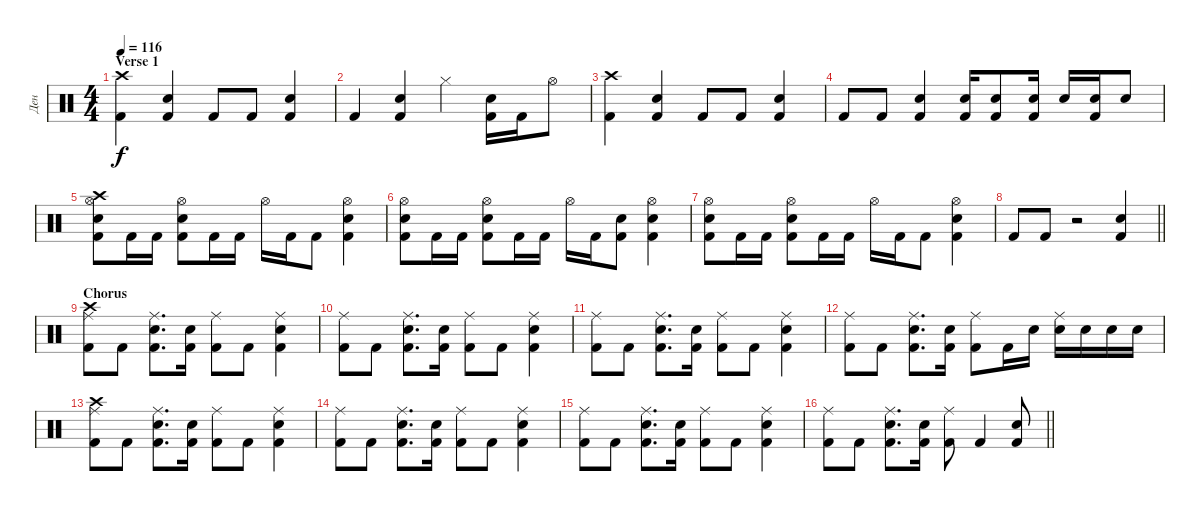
\track ("Ден" "Ден") {instrument percussion}
\staff {score}
\articulation defaults
\ts (4 4)
\section ("" "Verse 1")
\tempo 116
\clef neutral
\ks c
("Crash high (hit)" "Kick (hit) 2").4{dy f} ("Electric Snare (hit)" "Kick (hit) 2").4 "Kick (hit) 2".8 "Kick (hit) 2".8 ("Electric Snare (hit)" "Kick (hit) 2").4 |
"Kick (hit) 2".4 ("Electric Snare (hit)" "Kick (hit) 2").4 "Hi-Hat (closed)".4 ("Electric Snare (hit)" "Kick (hit) 2").16 "Kick (hit) 2".16 "Hi-Hat (open)".8 |
("Crash high (hit)" "Kick (hit) 2").4 ("Electric Snare (hit)" "Kick (hit) 2").4 "Kick (hit) 2".8 "Kick (hit) 2".8 ("Electric Snare (hit)" "Kick (hit) 2").4 |
"Kick (hit) 2".8 "Kick (hit) 2".8 ("Electric Snare (hit)" "Kick (hit) 2").4 ("Electric Snare (hit)" "Kick (hit) 2").16 ("Electric Snare (hit)" "Kick (hit) 2").8 ("Electric Snare (hit)" "Kick (hit) 2").16 "Electric Snare (hit)".16 ("Electric Snare (hit)" "Kick (hit) 2").16 "Electric Snare (hit)".8 |
("Crash high (hit)" "Hi-Hat (open)" "Electric Snare (hit)" "Kick (hit) 2").8 "Kick (hit) 2".16 "Kick (hit) 2".16 ("Hi-Hat (open)" "Electric Snare (hit)" "Kick (hit) 2").8 "Kick (hit) 2".16 "Kick (hit) 2".16 "Hi-Hat (open)".16 "Kick (hit) 2".16 "Kick (hit) 2".8 ("Hi-Hat (open)" "Electric Snare (hit)" "Kick (hit) 2").4 |
("Hi-Hat (open)" "Electric Snare (hit)" "Kick (hit) 2").8 "Kick (hit) 2".16 "Kick (hit) 2".16 ("Hi-Hat (open)" "Electric Snare (hit)" "Kick (hit) 2").8 "Kick (hit) 2".16 "Kick (hit) 2".16 "Hi-Hat (open)".16 "Kick (hit) 2".16 ("Electric Snare (hit)" "Kick (hit) 2").8 ("Hi-Hat (open)" "Electric Snare (hit)" "Kick (hit) 2").4 |
("Hi-Hat (open)" "Electric Snare (hit)" "Kick (hit) 2").8 "Kick (hit) 2".16 "Kick (hit) 2".16 ("Hi-Hat (open)" "Electric Snare (hit)" "Kick (hit) 2").8 "Kick (hit) 2".16 "Kick (hit) 2".16 "Hi-Hat (open)".16 "Kick (hit) 2".16 "Kick (hit) 2".8 ("Hi-Hat (open)" "Electric Snare (hit)" "Kick (hit) 2").4 |
\barLineRight lightlight "Kick (hit) 2".8 "Kick (hit) 2".8
r.2 ("Electric Snare (hit)" "Kick (hit) 2").4 |
\section ("" "Chorus")
("Crash high (hit)" "Ride (middle)" "Kick (hit) 2").8 "Kick (hit) 2".8 ("Ride (middle)" "Electric Snare (hit)" "Kick (hit) 2").8{d} ("Electric Snare (hit)" "Kick (hit) 2").16 ("Ride (middle)" "Kick (hit) 2").8 "Kick (hit) 2".8 ("Ride (middle)" "Electric Snare (hit)" "Kick (hit) 2").4 |
("Ride (middle)" "Kick (hit) 2").8 "Kick (hit) 2".8 ("Ride (middle)" "Electric Snare (hit)" "Kick (hit) 2").8{d} ("Electric Snare (hit)" "Kick (hit) 2").16 ("Ride (middle)" "Kick (hit) 2").8 "Kick (hit) 2".8 ("Ride (middle)" "Electric Snare (hit)" "Kick (hit) 2").4 |
("Ride (middle)" "Kick (hit) 2").8 "Kick (hit) 2".8 ("Ride (middle)" "Electric Snare (hit)" "Kick (hit) 2").8{d} ("Electric Snare (hit)" "Kick (hit) 2").16 ("Ride (middle)" "Kick (hit) 2").8 "Kick (hit) 2".8 ("Ride (middle)" "Electric Snare (hit)" "Kick (hit) 2").4 |
("Ride (middle)" "Kick (hit) 2").8 "Kick (hit) 2".8 ("Ride (middle)" "Electric Snare (hit)" "Kick (hit) 2").8{d} ("Electric Snare (hit)" "Kick (hit) 2").16 ("Ride (middle)" "Kick (hit) 2").8 "Kick (hit) 2".16 "Electric Snare (hit)".16 ("Ride (middle)" "Electric Snare (hit)").16 "Electric Snare (hit)".16 "Electric Snare (hit)".16 "Electric Snare (hit)".16 |
("Crash high (hit)" "Ride (middle)" "Kick (hit) 2").8 "Kick (hit) 2".8 ("Ride (middle)" "Electric Snare (hit)" "Kick (hit) 2").8{d} ("Electric Snare (hit)" "Kick (hit) 2").16 ("Ride (middle)" "Kick (hit) 2").8 "Kick (hit) 2".8 ("Ride (middle)" "Electric Snare (hit)" "Kick (hit) 2").4 |
("Ride (middle)" "Kick (hit) 2").8 "Kick (hit) 2".8 ("Ride (middle)" "Electric Snare (hit)" "Kick (hit) 2").8{d} ("Electric Snare (hit)" "Kick (hit) 2").16 ("Ride (middle)" "Kick (hit) 2").8 "Kick (hit) 2".8 ("Ride (middle)" "Electric Snare (hit)" "Kick (hit) 2").4 |
("Ride (middle)" "Kick (hit) 2").8 "Kick (hit) 2".8 ("Ride (middle)" "Electric Snare (hit)" "Kick (hit) 2").8{d} ("Electric Snare (hit)" "Kick (hit) 2").16 ("Ride (middle)" "Kick (hit) 2").8 "Kick (hit) 2".8 ("Ride (middle)" "Electric Snare (hit)" "Kick (hit) 2").4 |
\barLineRight lightlight
("Ride (middle)" "Kick (hit) 2").8 "Kick (hit) 2".8 ("Ride (middle)" "Electric Snare (hit)" "Kick (hit) 2").8{d} ("Electric Snare (hit)" "Kick (hit) 2").16 ("Ride (middle)" "Kick (hit) 2").8 "Kick (hit) 2".4 ("Electric Snare (hit)" "Kick (hit) 2").8
